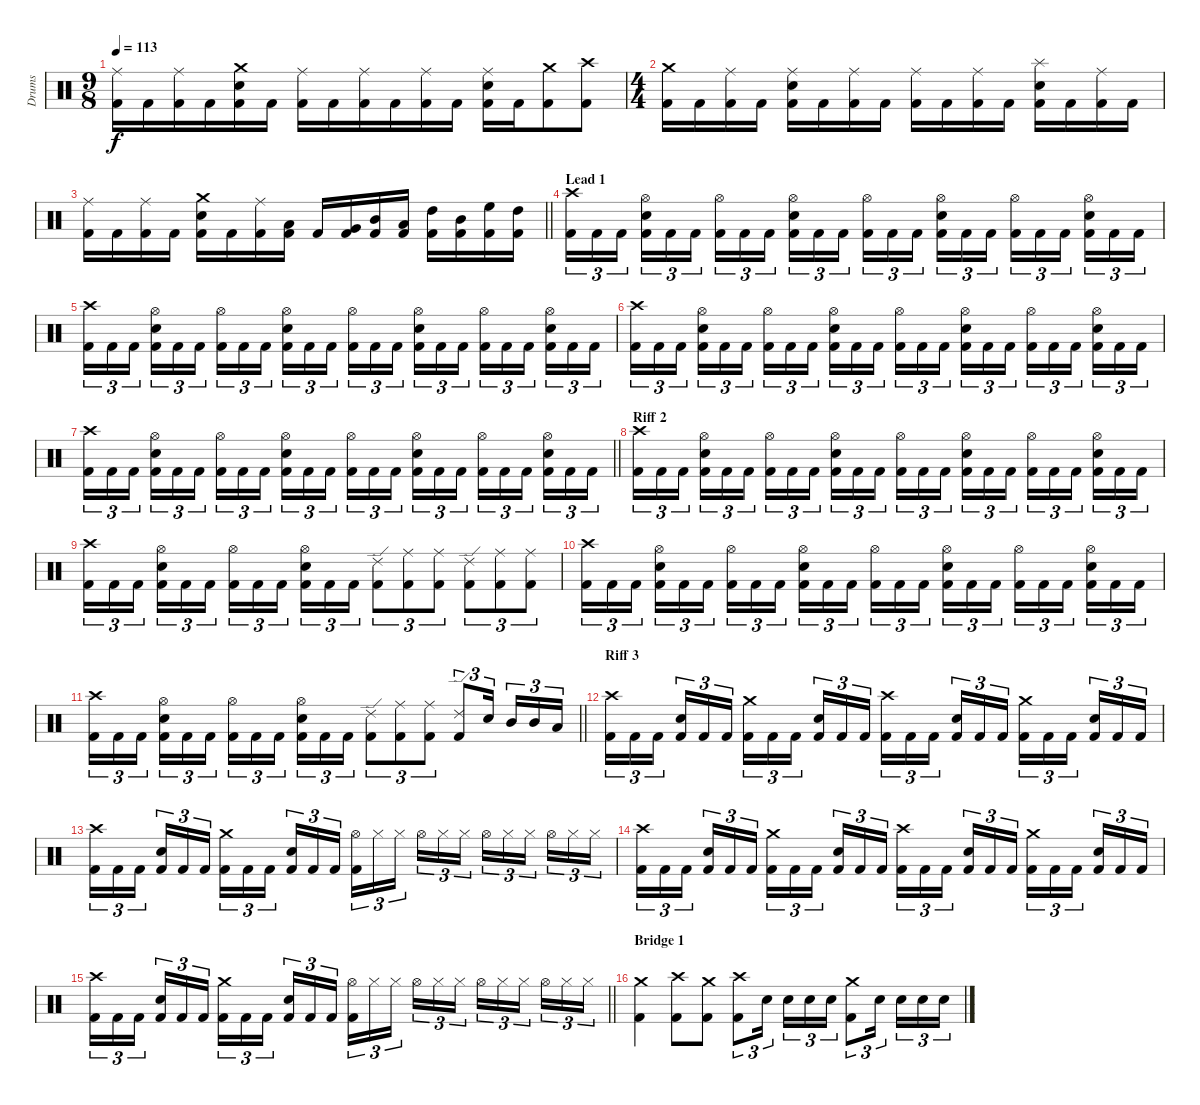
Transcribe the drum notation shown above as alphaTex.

\track ("Drums" "Drums") {instrument percussion}
\staff {score}
\articulation defaults
\ts (9 8)
\tempo 113
\clef neutral
\ks c
("Ride (middle)" "Kick (hit) 2").16{dy f} "Kick (hit) 2".16 ("Ride (middle)" "Kick (hit) 2").16 "Kick (hit) 2".16 ("Crash medium (hit)" "Snare (hit) 2" "Kick (hit) 2").16 "Kick (hit) 2".16 ("Ride (middle)" "Kick (hit) 2").16 "Kick (hit) 2".16 ("Ride (middle)" "Kick (hit) 2").16 "Kick (hit) 2".16 ("Ride (middle)" "Kick (hit) 2").16 "Kick (hit) 2".16 ("Ride (middle)" "Snare (hit) 2" "Kick (hit) 2").16 "Kick (hit) 2".16 ("Crash medium (hit)" "Kick (hit) 2").8 ("Crash high (hit)" "Kick (hit) 2").8 |
\ts (4 4)
("Crash medium (hit)" "Kick (hit) 2").16 "Kick (hit) 2".16 ("Ride (middle)" "Kick (hit) 2").16 "Kick (hit) 2".16 ("Ride (middle)" "Snare (hit) 2" "Kick (hit) 2").16 "Kick (hit) 2".16 ("Ride (middle)" "Kick (hit) 2").16 "Kick (hit) 2".16 ("Ride (middle)" "Kick (hit) 2").16 "Kick (hit) 2".16 ("Ride (middle)" "Kick (hit) 2").16 "Kick (hit) 2".16 ("Splash (hit)" "Snare (hit) 2" "Kick (hit) 2").16 "Kick (hit) 2".16 ("Ride (middle)" "Kick (hit) 2").16 "Kick (hit) 2".16 |
\barLineRight lightlight
("Ride (middle)" "Kick (hit) 2").16 "Kick (hit) 2".16 ("Ride (middle)" "Kick (hit) 2").16 "Kick (hit) 2".16 ("Crash medium (hit)" "Snare (hit) 2" "Kick (hit) 2").16 "Kick (hit) 2".16 ("Ride (middle)" "Kick (hit) 2").16 ("Low Tom (hit)" "Kick (hit) 2").16 "Kick (hit) 2".16 ("Very Low Tom (hit)" "Kick (hit) 2").16 ("Mid Tom (hit)" "Kick (hit) 2").16 ("Low Tom (hit)" "Kick (hit) 2").16 ("High Tom (hit)" "Kick (hit) 2").16 ("Mid Tom (hit)" "Kick (hit) 2").16 ("High Floor Tom (hit)" "Kick (hit) 2").16 ("High Tom (hit)" "Kick (hit) 2").16 |
\section ("" "Lead 1")
("Crash high (hit)" "Kick (hit) 2").16{tu (3 2)} "Kick (hit) 2".16{tu (3 2)} "Kick (hit) 2".16{tu (3 2) beam splitsecondary} ("Hi-Hat (open)" "Snare (hit) 2" "Kick (hit) 2").16{tu (3 2)} "Kick (hit) 2".16{tu (3 2)} "Kick (hit) 2".16{tu (3 2)} ("Hi-Hat (open)" "Kick (hit) 2").16{tu (3 2)} "Kick (hit) 2".16{tu (3 2)} "Kick (hit) 2".16{tu (3 2) beam splitsecondary} ("Hi-Hat (open)" "Snare (hit) 2" "Kick (hit) 2").16{tu (3 2)} "Kick (hit) 2".16{tu (3 2)} "Kick (hit) 2".16{tu (3 2)} ("Hi-Hat (open)" "Kick (hit) 2").16{tu (3 2)} "Kick (hit) 2".16{tu (3 2)} "Kick (hit) 2".16{tu (3 2) beam splitsecondary} ("Hi-Hat (open)" "Snare (hit) 2" "Kick (hit) 2").16{tu (3 2)} "Kick (hit) 2".16{tu (3 2)} "Kick (hit) 2".16{tu (3 2)} ("Hi-Hat (open)" "Kick (hit) 2").16{tu (3 2)} "Kick (hit) 2".16{tu (3 2)} "Kick (hit) 2".16{tu (3 2) beam splitsecondary} ("Hi-Hat (open)" "Snare (hit) 2" "Kick (hit) 2").16{tu (3 2)} "Kick (hit) 2".16{tu (3 2)} "Kick (hit) 2".16{tu (3 2)} |
("Crash high (hit)" "Kick (hit) 2").16{tu (3 2)} "Kick (hit) 2".16{tu (3 2)} "Kick (hit) 2".16{tu (3 2) beam splitsecondary} ("Hi-Hat (open)" "Snare (hit) 2" "Kick (hit) 2").16{tu (3 2)} "Kick (hit) 2".16{tu (3 2)} "Kick (hit) 2".16{tu (3 2)} ("Hi-Hat (open)" "Kick (hit) 2").16{tu (3 2)} "Kick (hit) 2".16{tu (3 2)} "Kick (hit) 2".16{tu (3 2) beam splitsecondary} ("Hi-Hat (open)" "Snare (hit) 2" "Kick (hit) 2").16{tu (3 2)} "Kick (hit) 2".16{tu (3 2)} "Kick (hit) 2".16{tu (3 2)} ("Hi-Hat (open)" "Kick (hit) 2").16{tu (3 2)} "Kick (hit) 2".16{tu (3 2)} "Kick (hit) 2".16{tu (3 2) beam splitsecondary} ("Hi-Hat (open)" "Snare (hit) 2" "Kick (hit) 2").16{tu (3 2)} "Kick (hit) 2".16{tu (3 2)} "Kick (hit) 2".16{tu (3 2)} ("Hi-Hat (open)" "Kick (hit) 2").16{tu (3 2)} "Kick (hit) 2".16{tu (3 2)} "Kick (hit) 2".16{tu (3 2) beam splitsecondary} ("Hi-Hat (open)" "Snare (hit) 2" "Kick (hit) 2").16{tu (3 2)} "Kick (hit) 2".16{tu (3 2)} "Kick (hit) 2".16{tu (3 2)} |
("Crash high (hit)" "Kick (hit) 2").16{tu (3 2)} "Kick (hit) 2".16{tu (3 2)} "Kick (hit) 2".16{tu (3 2) beam splitsecondary} ("Hi-Hat (open)" "Snare (hit) 2" "Kick (hit) 2").16{tu (3 2)} "Kick (hit) 2".16{tu (3 2)} "Kick (hit) 2".16{tu (3 2)} ("Hi-Hat (open)" "Kick (hit) 2").16{tu (3 2)} "Kick (hit) 2".16{tu (3 2)} "Kick (hit) 2".16{tu (3 2) beam splitsecondary} ("Hi-Hat (open)" "Snare (hit) 2" "Kick (hit) 2").16{tu (3 2)} "Kick (hit) 2".16{tu (3 2)} "Kick (hit) 2".16{tu (3 2)} ("Hi-Hat (open)" "Kick (hit) 2").16{tu (3 2)} "Kick (hit) 2".16{tu (3 2)} "Kick (hit) 2".16{tu (3 2) beam splitsecondary} ("Hi-Hat (open)" "Snare (hit) 2" "Kick (hit) 2").16{tu (3 2)} "Kick (hit) 2".16{tu (3 2)} "Kick (hit) 2".16{tu (3 2)} ("Hi-Hat (open)" "Kick (hit) 2").16{tu (3 2)} "Kick (hit) 2".16{tu (3 2)} "Kick (hit) 2".16{tu (3 2) beam splitsecondary} ("Hi-Hat (open)" "Snare (hit) 2" "Kick (hit) 2").16{tu (3 2)} "Kick (hit) 2".16{tu (3 2)} "Kick (hit) 2".16{tu (3 2)} |
\barLineRight lightlight
("Crash high (hit)" "Kick (hit) 2").16{tu (3 2)} "Kick (hit) 2".16{tu (3 2)} "Kick (hit) 2".16{tu (3 2) beam splitsecondary} ("Hi-Hat (open)" "Snare (hit) 2" "Kick (hit) 2").16{tu (3 2)} "Kick (hit) 2".16{tu (3 2)} "Kick (hit) 2".16{tu (3 2)} ("Hi-Hat (open)" "Kick (hit) 2").16{tu (3 2)} "Kick (hit) 2".16{tu (3 2)} "Kick (hit) 2".16{tu (3 2) beam splitsecondary} ("Hi-Hat (open)" "Snare (hit) 2" "Kick (hit) 2").16{tu (3 2)} "Kick (hit) 2".16{tu (3 2)} "Kick (hit) 2".16{tu (3 2)} ("Hi-Hat (open)" "Kick (hit) 2").16{tu (3 2)} "Kick (hit) 2".16{tu (3 2)} "Kick (hit) 2".16{tu (3 2) beam splitsecondary} ("Hi-Hat (open)" "Snare (hit) 2" "Kick (hit) 2").16{tu (3 2)} "Kick (hit) 2".16{tu (3 2)} "Kick (hit) 2".16{tu (3 2)} ("Hi-Hat (open)" "Kick (hit) 2").16{tu (3 2)} "Kick (hit) 2".16{tu (3 2)} "Kick (hit) 2".16{tu (3 2) beam splitsecondary} ("Hi-Hat (open)" "Snare (hit) 2" "Kick (hit) 2").16{tu (3 2)} "Kick (hit) 2".16{tu (3 2)} "Kick (hit) 2".16{tu (3 2)} |
\section ("" "Riff 2")
("Crash high (hit)" "Kick (hit) 2").16{tu (3 2)} "Kick (hit) 2".16{tu (3 2)} "Kick (hit) 2".16{tu (3 2) beam splitsecondary} ("Hi-Hat (open)" "Snare (hit) 2" "Kick (hit) 2").16{tu (3 2)} "Kick (hit) 2".16{tu (3 2)} "Kick (hit) 2".16{tu (3 2)} ("Hi-Hat (open)" "Kick (hit) 2").16{tu (3 2)} "Kick (hit) 2".16{tu (3 2)} "Kick (hit) 2".16{tu (3 2) beam splitsecondary} ("Hi-Hat (open)" "Snare (hit) 2" "Kick (hit) 2").16{tu (3 2)} "Kick (hit) 2".16{tu (3 2)} "Kick (hit) 2".16{tu (3 2)} ("Hi-Hat (open)" "Kick (hit) 2").16{tu (3 2)} "Kick (hit) 2".16{tu (3 2)} "Kick (hit) 2".16{tu (3 2) beam splitsecondary} ("Hi-Hat (open)" "Snare (hit) 2" "Kick (hit) 2").16{tu (3 2)} "Kick (hit) 2".16{tu (3 2)} "Kick (hit) 2".16{tu (3 2)} ("Hi-Hat (open)" "Kick (hit) 2").16{tu (3 2)} "Kick (hit) 2".16{tu (3 2)} "Kick (hit) 2".16{tu (3 2) beam splitsecondary} ("Hi-Hat (open)" "Snare (hit) 2" "Kick (hit) 2").16{tu (3 2)} "Kick (hit) 2".16{tu (3 2)} "Kick (hit) 2".16{tu (3 2)} |
("Crash high (hit)" "Kick (hit) 2").16{tu (3 2)} "Kick (hit) 2".16{tu (3 2)} "Kick (hit) 2".16{tu (3 2) beam splitsecondary} ("Hi-Hat (open)" "Snare (hit) 2" "Kick (hit) 2").16{tu (3 2)} "Kick (hit) 2".16{tu (3 2)} "Kick (hit) 2".16{tu (3 2)} ("Hi-Hat (open)" "Kick (hit) 2").16{tu (3 2)} "Kick (hit) 2".16{tu (3 2)} "Kick (hit) 2".16{tu (3 2) beam splitsecondary} ("Hi-Hat (open)" "Snare (hit) 2" "Kick (hit) 2").16{tu (3 2)} "Kick (hit) 2".16{tu (3 2)} "Kick (hit) 2".16{tu (3 2)} ("Ride (edge) 2" "Kick (hit) 2").8{tu (3 2)} ("Ride (middle)" "Kick (hit) 2").8{tu (3 2)} ("Ride (middle)" "Kick (hit) 2").8{tu (3 2)} ("Ride (edge) 2" "Kick (hit) 2").8{tu (3 2)} ("Ride (middle)" "Kick (hit) 2").8{tu (3 2)} ("Ride (middle)" "Kick (hit) 2").8{tu (3 2)} |
("Crash high (hit)" "Kick (hit) 2").16{tu (3 2)} "Kick (hit) 2".16{tu (3 2)} "Kick (hit) 2".16{tu (3 2) beam splitsecondary} ("Hi-Hat (open)" "Snare (hit) 2" "Kick (hit) 2").16{tu (3 2)} "Kick (hit) 2".16{tu (3 2)} "Kick (hit) 2".16{tu (3 2)} ("Hi-Hat (open)" "Kick (hit) 2").16{tu (3 2)} "Kick (hit) 2".16{tu (3 2)} "Kick (hit) 2".16{tu (3 2) beam splitsecondary} ("Hi-Hat (open)" "Snare (hit) 2" "Kick (hit) 2").16{tu (3 2)} "Kick (hit) 2".16{tu (3 2)} "Kick (hit) 2".16{tu (3 2)} ("Hi-Hat (open)" "Kick (hit) 2").16{tu (3 2)} "Kick (hit) 2".16{tu (3 2)} "Kick (hit) 2".16{tu (3 2) beam splitsecondary} ("Hi-Hat (open)" "Snare (hit) 2" "Kick (hit) 2").16{tu (3 2)} "Kick (hit) 2".16{tu (3 2)} "Kick (hit) 2".16{tu (3 2)} ("Hi-Hat (open)" "Kick (hit) 2").16{tu (3 2)} "Kick (hit) 2".16{tu (3 2)} "Kick (hit) 2".16{tu (3 2) beam splitsecondary} ("Hi-Hat (open)" "Snare (hit) 2" "Kick (hit) 2").16{tu (3 2)} "Kick (hit) 2".16{tu (3 2)} "Kick (hit) 2".16{tu (3 2)} |
\barLineRight lightlight
("Crash high (hit)" "Kick (hit) 2").16{tu (3 2)} "Kick (hit) 2".16{tu (3 2)} "Kick (hit) 2".16{tu (3 2) beam splitsecondary} ("Hi-Hat (open)" "Snare (hit) 2" "Kick (hit) 2").16{tu (3 2)} "Kick (hit) 2".16{tu (3 2)} "Kick (hit) 2".16{tu (3 2)} ("Hi-Hat (open)" "Kick (hit) 2").16{tu (3 2)} "Kick (hit) 2".16{tu (3 2)} "Kick (hit) 2".16{tu (3 2) beam splitsecondary} ("Hi-Hat (open)" "Snare (hit) 2" "Kick (hit) 2").16{tu (3 2)} "Kick (hit) 2".16{tu (3 2)} "Kick (hit) 2".16{tu (3 2)} ("Ride (edge) 2" "Kick (hit) 2").8{tu (3 2)} ("Ride (middle)" "Kick (hit) 2").8{tu (3 2)} ("Ride (middle)" "Kick (hit) 2").8{tu (3 2)} ("Ride (edge) 2" "Kick (hit) 2").8{tu (3 2)} "Snare (hit) 2".16{tu (3 2) beam splitsecondary} "Mid Tom (hit)".16{tu (3 2)} "Mid Tom (hit)".16{tu (3 2)} "Low Tom (hit)".16{tu (3 2)} |
\section ("" "Riff 3")
("Crash high (hit)" "Kick (hit) 2").16{tu (3 2)} "Kick (hit) 2".16{tu (3 2)} "Kick (hit) 2".16{tu (3 2) beam splitsecondary} ("Snare (hit) 2" "Kick (hit) 2").16{tu (3 2)} "Kick (hit) 2".16{tu (3 2)} "Kick (hit) 2".16{tu (3 2)} ("Crash medium (hit)" "Kick (hit) 2").16{tu (3 2)} "Kick (hit) 2".16{tu (3 2)} "Kick (hit) 2".16{tu (3 2) beam splitsecondary} ("Snare (hit) 2" "Kick (hit) 2").16{tu (3 2)} "Kick (hit) 2".16{tu (3 2)} "Kick (hit) 2".16{tu (3 2)} ("Crash high (hit)" "Kick (hit) 2").16{tu (3 2)} "Kick (hit) 2".16{tu (3 2)} "Kick (hit) 2".16{tu (3 2) beam splitsecondary} ("Snare (hit) 2" "Kick (hit) 2").16{tu (3 2)} "Kick (hit) 2".16{tu (3 2)} "Kick (hit) 2".16{tu (3 2)} ("Crash medium (hit)" "Kick (hit) 2").16{tu (3 2)} "Kick (hit) 2".16{tu (3 2)} "Kick (hit) 2".16{tu (3 2) beam splitsecondary} ("Snare (hit) 2" "Kick (hit) 2").16{tu (3 2)} "Kick (hit) 2".16{tu (3 2)} "Kick (hit) 2".16{tu (3 2)} |
("Crash high (hit)" "Kick (hit) 2").16{tu (3 2)} "Kick (hit) 2".16{tu (3 2)} "Kick (hit) 2".16{tu (3 2) beam splitsecondary} ("Snare (hit) 2" "Kick (hit) 2").16{tu (3 2)} "Kick (hit) 2".16{tu (3 2)} "Kick (hit) 2".16{tu (3 2)} ("Crash medium (hit)" "Kick (hit) 2").16{tu (3 2)} "Kick (hit) 2".16{tu (3 2)} "Kick (hit) 2".16{tu (3 2) beam splitsecondary} ("Snare (hit) 2" "Kick (hit) 2").16{tu (3 2)} "Kick (hit) 2".16{tu (3 2)} "Kick (hit) 2".16{tu (3 2)} ("Hi-Hat (open)" "Kick (hit) 2").16{tu (3 2)} "Hi-Hat (closed)".16{tu (3 2)} "Hi-Hat (closed)".16{tu (3 2) beam splitsecondary} "Hi-Hat (open)".16{tu (3 2)} "Hi-Hat (closed)".16{tu (3 2)} "Hi-Hat (closed)".16{tu (3 2)} "Hi-Hat (open)".16{tu (3 2)} "Hi-Hat (closed)".16{tu (3 2)} "Hi-Hat (closed)".16{tu (3 2) beam splitsecondary} "Hi-Hat (open)".16{tu (3 2)} "Hi-Hat (closed)".16{tu (3 2)} "Hi-Hat (closed)".16{tu (3 2)} |
("Crash high (hit)" "Kick (hit) 2").16{tu (3 2)} "Kick (hit) 2".16{tu (3 2)} "Kick (hit) 2".16{tu (3 2) beam splitsecondary} ("Snare (hit) 2" "Kick (hit) 2").16{tu (3 2)} "Kick (hit) 2".16{tu (3 2)} "Kick (hit) 2".16{tu (3 2)} ("Crash medium (hit)" "Kick (hit) 2").16{tu (3 2)} "Kick (hit) 2".16{tu (3 2)} "Kick (hit) 2".16{tu (3 2) beam splitsecondary} ("Snare (hit) 2" "Kick (hit) 2").16{tu (3 2)} "Kick (hit) 2".16{tu (3 2)} "Kick (hit) 2".16{tu (3 2)} ("Crash high (hit)" "Kick (hit) 2").16{tu (3 2)} "Kick (hit) 2".16{tu (3 2)} "Kick (hit) 2".16{tu (3 2) beam splitsecondary} ("Snare (hit) 2" "Kick (hit) 2").16{tu (3 2)} "Kick (hit) 2".16{tu (3 2)} "Kick (hit) 2".16{tu (3 2)} ("Crash medium (hit)" "Kick (hit) 2").16{tu (3 2)} "Kick (hit) 2".16{tu (3 2)} "Kick (hit) 2".16{tu (3 2) beam splitsecondary} ("Snare (hit) 2" "Kick (hit) 2").16{tu (3 2)} "Kick (hit) 2".16{tu (3 2)} "Kick (hit) 2".16{tu (3 2)} |
\barLineRight lightlight
("Crash high (hit)" "Kick (hit) 2").16{tu (3 2)} "Kick (hit) 2".16{tu (3 2)} "Kick (hit) 2".16{tu (3 2) beam splitsecondary} ("Snare (hit) 2" "Kick (hit) 2").16{tu (3 2)} "Kick (hit) 2".16{tu (3 2)} "Kick (hit) 2".16{tu (3 2)} ("Crash medium (hit)" "Kick (hit) 2").16{tu (3 2)} "Kick (hit) 2".16{tu (3 2)} "Kick (hit) 2".16{tu (3 2) beam splitsecondary} ("Snare (hit) 2" "Kick (hit) 2").16{tu (3 2)} "Kick (hit) 2".16{tu (3 2)} "Kick (hit) 2".16{tu (3 2)} ("Hi-Hat (open)" "Kick (hit) 2").16{tu (3 2)} "Hi-Hat (closed)".16{tu (3 2)} "Hi-Hat (closed)".16{tu (3 2) beam splitsecondary} "Hi-Hat (open)".16{tu (3 2)} "Hi-Hat (closed)".16{tu (3 2)} "Hi-Hat (closed)".16{tu (3 2)} "Hi-Hat (open)".16{tu (3 2)} "Hi-Hat (closed)".16{tu (3 2)} "Hi-Hat (closed)".16{tu (3 2) beam splitsecondary} "Hi-Hat (open)".16{tu (3 2)} "Hi-Hat (closed)".16{tu (3 2)} "Hi-Hat (closed)".16{tu (3 2)} |
\section ("" "Bridge 1")
("Crash medium (hit)" "Kick (hit) 2").4 ("Crash high (hit)" "Kick (hit) 2").8 ("Crash medium (hit)" "Kick (hit) 2").8 ("Crash high (hit)" "Kick (hit) 2").8{tu (3 2)} "Snare (hit) 2".16{tu (3 2) beam splitsecondary} "Snare (hit) 2".16{tu (3 2)} "Snare (hit) 2".16{tu (3 2)} "Snare (hit) 2".16{tu (3 2)} ("Crash medium (hit)" "Kick (hit) 2").8{tu (3 2)} "Snare (hit) 2".16{tu (3 2) beam splitsecondary} "Snare (hit) 2".16{tu (3 2)} "Snare (hit) 2".16{tu (3 2)} "Snare (hit) 2".16{tu (3 2)}
